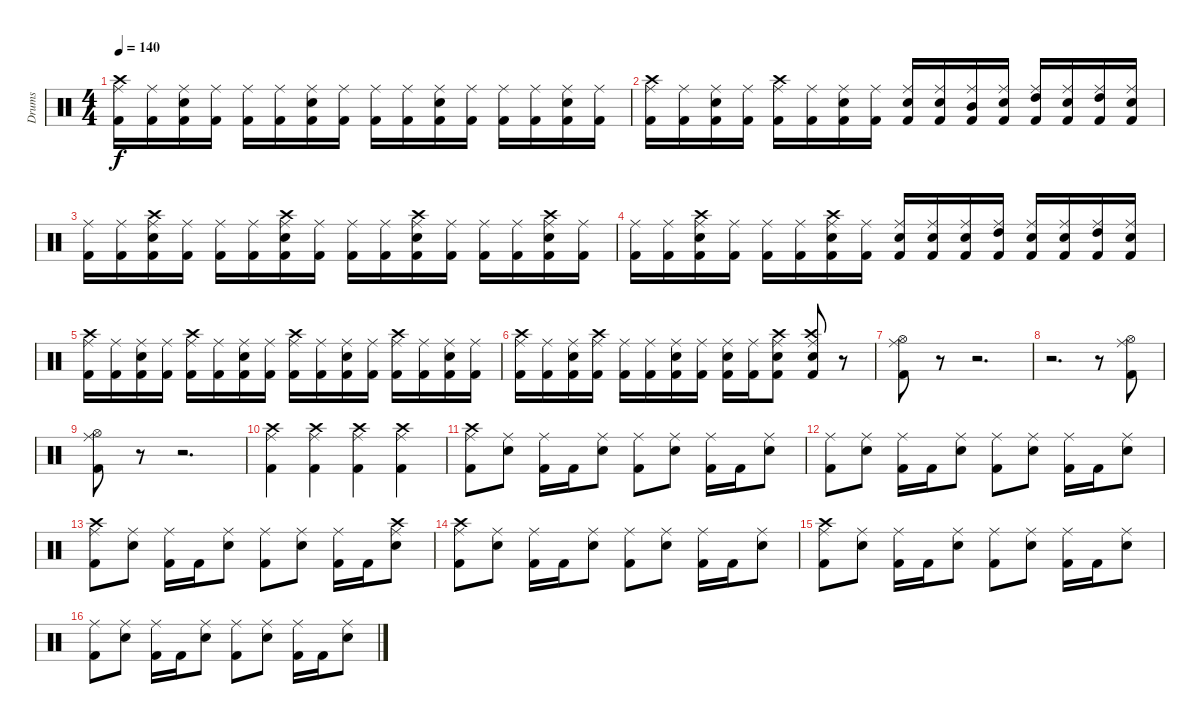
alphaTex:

\track ("Drums" "Drums") {instrument percussion}
\staff {score}
\articulation defaults
\ts (4 4)
\tempo 140
\clef neutral
\ks c
("Kick (hit) 2" "Crash high (hit)" "Ride (middle)").16{dy f} ("Kick (hit) 2" "Ride (middle)").16 ("Kick (hit) 2" "Snare (hit) 2" "Ride (middle)").16 ("Kick (hit) 2" "Ride (middle)").16 ("Kick (hit) 2" "Ride (middle)").16 ("Kick (hit) 2" "Ride (middle)").16 ("Kick (hit) 2" "Snare (hit) 2" "Ride (middle)").16 ("Kick (hit) 2" "Ride (middle)").16 ("Kick (hit) 2" "Ride (middle)").16 ("Kick (hit) 2" "Ride (middle)").16 ("Kick (hit) 2" "Snare (hit) 2" "Ride (middle)").16 ("Kick (hit) 2" "Ride (middle)").16 ("Kick (hit) 2" "Ride (middle)").16 ("Kick (hit) 2" "Ride (middle)").16 ("Kick (hit) 2" "Snare (hit) 2" "Ride (middle)").16 ("Kick (hit) 2" "Ride (middle)").16 |
("Kick (hit) 2" "Crash high (hit)" "Ride (middle)").16 ("Kick (hit) 2" "Ride (middle)").16 ("Kick (hit) 2" "Snare (hit) 2" "Ride (middle)").16 ("Kick (hit) 2" "Ride (middle)").16 ("Kick (hit) 2" "Crash high (hit)" "Ride (middle)").16 ("Kick (hit) 2" "Ride (middle)").16 ("Kick (hit) 2" "Snare (hit) 2" "Ride (middle)").16 ("Kick (hit) 2" "Ride (middle)").16 ("Kick (hit) 2" "Snare (hit) 2" "Ride (middle)").16 ("Kick (hit) 2" "Snare (hit) 2" "Ride (middle)").16 ("Kick (hit) 2" "Mid Tom (hit)" "Ride (middle)").16 ("Kick (hit) 2" "Snare (hit) 2" "Ride (middle)").16 ("Kick (hit) 2" "High Tom (hit)" "Ride (middle)").16 ("Kick (hit) 2" "Snare (hit) 2" "Ride (middle)").16 ("Kick (hit) 2" "High Tom (hit)" "Ride (middle)").16 ("Kick (hit) 2" "Snare (hit) 2" "Ride (middle)").16 |
("Kick (hit) 2" "Ride (middle)").16 ("Kick (hit) 2" "Ride (middle)").16 ("Kick (hit) 2" "Snare (hit) 2" "Crash high (hit)" "Ride (middle)").16 ("Kick (hit) 2" "Ride (middle)").16 ("Kick (hit) 2" "Ride (middle)").16 ("Kick (hit) 2" "Ride (middle)").16 ("Kick (hit) 2" "Snare (hit) 2" "Crash high (hit)" "Ride (middle)").16 ("Kick (hit) 2" "Ride (middle)").16 ("Kick (hit) 2" "Ride (middle)").16 ("Kick (hit) 2" "Ride (middle)").16 ("Kick (hit) 2" "Snare (hit) 2" "Crash high (hit)" "Ride (middle)").16 ("Kick (hit) 2" "Ride (middle)").16 ("Kick (hit) 2" "Ride (middle)").16 ("Kick (hit) 2" "Ride (middle)").16 ("Kick (hit) 2" "Snare (hit) 2" "Crash high (hit)" "Ride (middle)").16 ("Kick (hit) 2" "Ride (middle)").16 |
("Kick (hit) 2" "Ride (middle)").16 ("Kick (hit) 2" "Ride (middle)").16 ("Kick (hit) 2" "Snare (hit) 2" "Crash high (hit)" "Ride (middle)").16 ("Kick (hit) 2" "Ride (middle)").16 ("Kick (hit) 2" "Ride (middle)").16 ("Kick (hit) 2" "Ride (middle)").16 ("Kick (hit) 2" "Snare (hit) 2" "Crash high (hit)" "Ride (middle)").16 ("Kick (hit) 2" "Ride (middle)").16 ("Kick (hit) 2" "Snare (hit) 2" "Ride (middle)").16 ("Kick (hit) 2" "Snare (hit) 2" "Ride (middle)").16 ("Kick (hit) 2" "Snare (hit) 2" "Ride (middle)").16 ("Kick (hit) 2" "High Tom (hit)" "Ride (middle)").16 ("Kick (hit) 2" "Snare (hit) 2" "Ride (middle)").16 ("Kick (hit) 2" "Snare (hit) 2" "Ride (middle)").16 ("Kick (hit) 2" "High Tom (hit)" "Ride (middle)").16 ("Kick (hit) 2" "Snare (hit) 2" "Ride (middle)").16 |
("Kick (hit) 2" "Crash high (hit)" "Ride (middle)").16 ("Kick (hit) 2" "Ride (middle)").16 ("Kick (hit) 2" "Snare (hit) 2" "Ride (middle)").16 ("Kick (hit) 2" "Ride (middle)").16 ("Kick (hit) 2" "Crash high (hit)" "Ride (middle)").16 ("Kick (hit) 2" "Ride (middle)").16 ("Kick (hit) 2" "Snare (hit) 2" "Ride (middle)").16 ("Kick (hit) 2" "Ride (middle)").16 ("Kick (hit) 2" "Crash high (hit)" "Ride (middle)").16 ("Kick (hit) 2" "Ride (middle)").16 ("Kick (hit) 2" "Snare (hit) 2" "Ride (middle)").16 ("Kick (hit) 2" "Ride (middle)").16 ("Kick (hit) 2" "Crash high (hit)" "Ride (middle)").16 ("Kick (hit) 2" "Ride (middle)").16 ("Kick (hit) 2" "Snare (hit) 2" "Ride (middle)").16 ("Kick (hit) 2" "Ride (middle)").16 |
("Kick (hit) 2" "Crash high (hit)" "Ride (middle)").16 ("Kick (hit) 2" "Ride (middle)").16 ("Kick (hit) 2" "Snare (hit) 2" "Ride (middle)").16 ("Kick (hit) 2" "Crash high (hit)" "Ride (middle)").16 ("Kick (hit) 2" "Ride (middle)").16 ("Kick (hit) 2" "Ride (middle)").16 ("Kick (hit) 2" "Snare (hit) 2" "Ride (middle)").16 ("Kick (hit) 2" "Ride (middle)").16 ("Kick (hit) 2" "Snare (hit) 2" "Ride (middle)").16 ("Kick (hit) 2" "Ride (middle)").16 ("Kick (hit) 2" "Snare (hit) 2" "Crash high (hit)" "Ride (middle)").8 ("Kick (hit) 2" "Snare (hit) 2" "Crash high (hit)" "Ride (middle)").8 r.8 |
("Kick (hit) 2" "Hi-Hat (open)" "Ride (middle)").8 r.8 r.2{d} |
r.2{d} r.8 ("Kick (hit) 2" "Hi-Hat (open)" "Ride (middle)").8 |
("Kick (hit) 2" "Hi-Hat (open)" "Ride (middle)").8 r.8 r.2{d} |
("Kick (hit) 2" "Crash high (hit)" "Ride (middle)").4 ("Kick (hit) 2" "Crash high (hit)" "Ride (middle)").4 ("Kick (hit) 2" "Crash high (hit)" "Ride (middle)").4 ("Kick (hit) 2" "Crash high (hit)" "Ride (middle)").4 |
("Kick (hit) 2" "Crash high (hit)" "Ride (middle)").8 ("Snare (hit) 2" "Ride (middle)").8 ("Kick (hit) 2" "Ride (middle)").16 "Kick (hit) 2".16 ("Snare (hit) 2" "Ride (middle)").8 ("Kick (hit) 2" "Ride (middle)").8 ("Snare (hit) 2" "Ride (middle)").8 ("Kick (hit) 2" "Ride (middle)").16 "Kick (hit) 2".16 ("Snare (hit) 2" "Ride (middle)").8 |
("Kick (hit) 2" "Ride (middle)").8 ("Snare (hit) 2" "Ride (middle)").8 ("Kick (hit) 2" "Ride (middle)").16 "Kick (hit) 2".16 ("Snare (hit) 2" "Ride (middle)").8 ("Kick (hit) 2" "Ride (middle)").8 ("Snare (hit) 2" "Ride (middle)").8 ("Kick (hit) 2" "Ride (middle)").16 "Kick (hit) 2".16 ("Snare (hit) 2" "Ride (middle)").8 |
("Kick (hit) 2" "Crash high (hit)" "Ride (middle)").8 ("Snare (hit) 2" "Ride (middle)").8 ("Kick (hit) 2" "Ride (middle)").16 "Kick (hit) 2".16 ("Snare (hit) 2" "Ride (middle)").8 ("Kick (hit) 2" "Ride (middle)").8 ("Snare (hit) 2" "Ride (middle)").8 ("Kick (hit) 2" "Ride (middle)").16 "Kick (hit) 2".16 ("Snare (hit) 2" "Crash high (hit)" "Ride (middle)").8 |
("Kick (hit) 2" "Crash high (hit)" "Ride (middle)").8 ("Snare (hit) 2" "Ride (middle)").8 ("Kick (hit) 2" "Ride (middle)").16 "Kick (hit) 2".16 ("Snare (hit) 2" "Ride (middle)").8 ("Kick (hit) 2" "Ride (middle)").8 ("Snare (hit) 2" "Ride (middle)").8 ("Kick (hit) 2" "Ride (middle)").16 "Kick (hit) 2".16 ("Snare (hit) 2" "Ride (middle)").8 |
("Kick (hit) 2" "Crash high (hit)" "Ride (middle)").8 ("Snare (hit) 2" "Ride (middle)").8 ("Kick (hit) 2" "Ride (middle)").16 "Kick (hit) 2".16 ("Snare (hit) 2" "Ride (middle)").8 ("Kick (hit) 2" "Ride (middle)").8 ("Snare (hit) 2" "Ride (middle)").8 ("Kick (hit) 2" "Ride (middle)").16 "Kick (hit) 2".16 ("Snare (hit) 2" "Ride (middle)").8 |
("Kick (hit) 2" "Ride (middle)").8 ("Snare (hit) 2" "Ride (middle)").8 ("Kick (hit) 2" "Ride (middle)").16 "Kick (hit) 2".16 ("Snare (hit) 2" "Ride (middle)").8 ("Kick (hit) 2" "Ride (middle)").8 ("Snare (hit) 2" "Ride (middle)").8 ("Kick (hit) 2" "Ride (middle)").16 "Kick (hit) 2".16 ("Snare (hit) 2" "Ride (middle)").8
